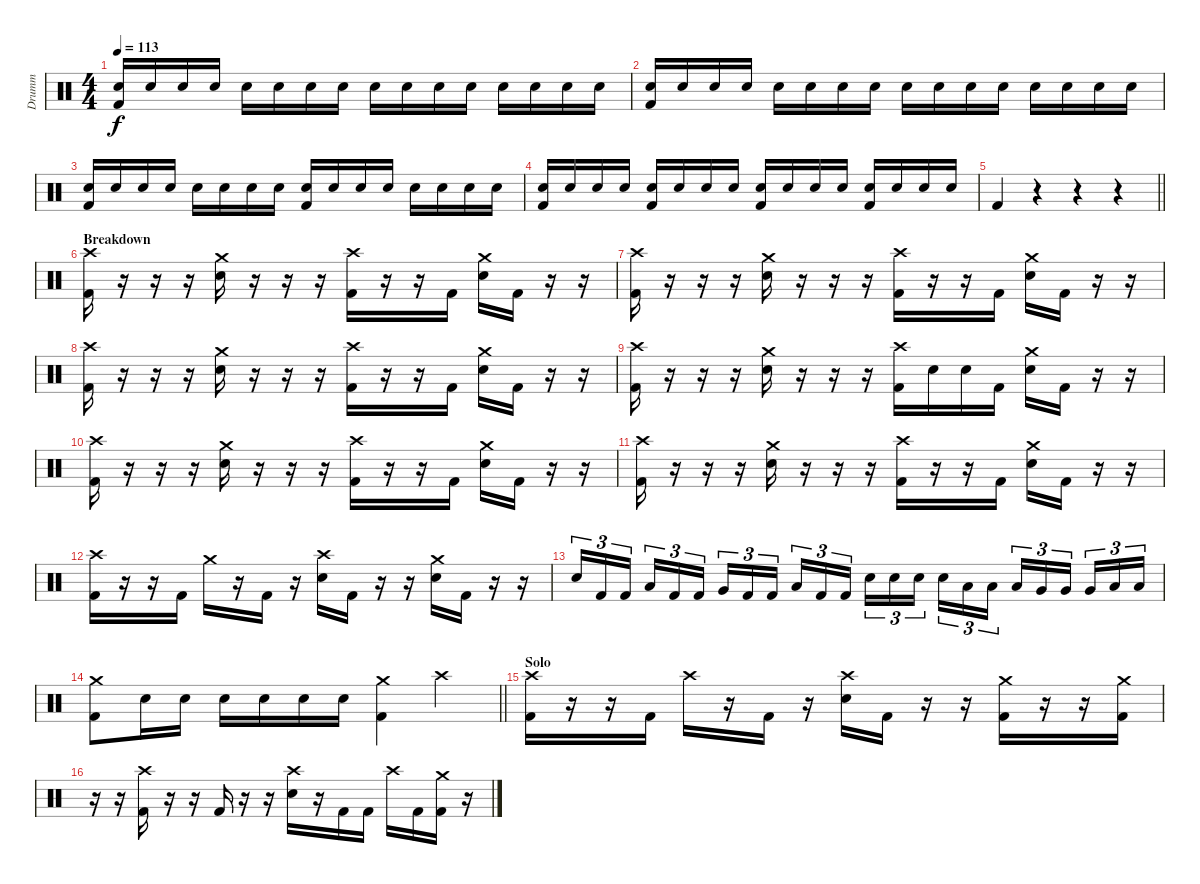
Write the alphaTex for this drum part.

\track ("Drumm" "Drumm") {instrument percussion}
\staff {score}
\articulation defaults
\ts (4 4)
\tempo 113
\clef neutral
\ks c
("Electric Snare (hit)" "Kick (hit) 2").16{dy f volume 11} "Electric Snare (hit)".16 "Electric Snare (hit)".16 "Electric Snare (hit)".16 "Electric Snare (hit)".16 "Electric Snare (hit)".16 "Electric Snare (hit)".16 "Electric Snare (hit)".16 "Electric Snare (hit)".16 "Electric Snare (hit)".16 "Electric Snare (hit)".16 "Electric Snare (hit)".16 "Electric Snare (hit)".16 "Electric Snare (hit)".16 "Electric Snare (hit)".16 "Electric Snare (hit)".16 |
("Electric Snare (hit)" "Kick (hit) 2").16 "Electric Snare (hit)".16 "Electric Snare (hit)".16 "Electric Snare (hit)".16 "Electric Snare (hit)".16 "Electric Snare (hit)".16 "Electric Snare (hit)".16 "Electric Snare (hit)".16 "Electric Snare (hit)".16 "Electric Snare (hit)".16 "Electric Snare (hit)".16 "Electric Snare (hit)".16 "Electric Snare (hit)".16 "Electric Snare (hit)".16 "Electric Snare (hit)".16 "Electric Snare (hit)".16 |
("Electric Snare (hit)" "Kick (hit) 2").16 "Electric Snare (hit)".16 "Electric Snare (hit)".16 "Electric Snare (hit)".16 "Electric Snare (hit)".16 "Electric Snare (hit)".16 "Electric Snare (hit)".16 "Electric Snare (hit)".16 ("Electric Snare (hit)" "Kick (hit) 2").16 "Electric Snare (hit)".16 "Electric Snare (hit)".16 "Electric Snare (hit)".16 "Electric Snare (hit)".16 "Electric Snare (hit)".16 "Electric Snare (hit)".16 "Electric Snare (hit)".16 |
("Electric Snare (hit)" "Kick (hit) 2").16{volume 16} "Electric Snare (hit)".16 "Electric Snare (hit)".16 "Electric Snare (hit)".16 ("Electric Snare (hit)" "Kick (hit) 2").16 "Electric Snare (hit)".16 "Electric Snare (hit)".16 "Electric Snare (hit)".16 ("Electric Snare (hit)" "Kick (hit) 2").16 "Electric Snare (hit)".16 "Electric Snare (hit)".16 "Electric Snare (hit)".16 ("Electric Snare (hit)" "Kick (hit) 2").16 "Electric Snare (hit)".16 "Electric Snare (hit)".16 "Electric Snare (hit)".16 |
\barLineRight lightlight "Kick (hit) 2".4
r.4 r.4 r.4 |
\section ("" "Breakdown")
("Crash high (hit)" "Kick (hit) 2").16 r.16 r.16 r.16 ("Crash medium (hit)" "Electric Snare (hit)").16 r.16 r.16 r.16 ("Crash high (hit)" "Kick (hit) 2").16 r.16 r.16 "Kick (hit) 2".16 ("Crash medium (hit)" "Electric Snare (hit)").16 "Kick (hit) 2".16 r.16 r.16 |
("Crash high (hit)" "Kick (hit) 2").16 r.16 r.16 r.16 ("Crash medium (hit)" "Electric Snare (hit)").16 r.16 r.16 r.16 ("Crash high (hit)" "Kick (hit) 2").16 r.16 r.16 "Kick (hit) 2".16 ("Crash medium (hit)" "Electric Snare (hit)").16 "Kick (hit) 2".16 r.16 r.16 |
("Crash high (hit)" "Kick (hit) 2").16 r.16 r.16 r.16 ("Crash medium (hit)" "Electric Snare (hit)").16 r.16 r.16 r.16 ("Crash high (hit)" "Kick (hit) 2").16 r.16 r.16 "Kick (hit) 2".16 ("Crash medium (hit)" "Electric Snare (hit)").16 "Kick (hit) 2".16 r.16 r.16 |
("Crash high (hit)" "Kick (hit) 2").16 r.16 r.16 r.16 ("Crash medium (hit)" "Electric Snare (hit)").16 r.16 r.16 r.16 ("Crash high (hit)" "Kick (hit) 2").16 "Electric Snare (hit)".16 "Electric Snare (hit)".16 "Kick (hit) 2".16 ("Crash medium (hit)" "Electric Snare (hit)").16 "Kick (hit) 2".16 r.16 r.16 |
("Crash high (hit)" "Kick (hit) 2").16 r.16 r.16 r.16 ("Crash medium (hit)" "Electric Snare (hit)").16 r.16 r.16 r.16 ("Crash high (hit)" "Kick (hit) 2").16 r.16 r.16 "Kick (hit) 2".16 ("Crash medium (hit)" "Electric Snare (hit)").16 "Kick (hit) 2".16 r.16 r.16 |
("Crash high (hit)" "Kick (hit) 2").16 r.16 r.16 r.16 ("Crash medium (hit)" "Electric Snare (hit)").16 r.16 r.16 r.16 ("Crash high (hit)" "Kick (hit) 2").16 r.16 r.16 "Kick (hit) 2".16 ("Crash medium (hit)" "Electric Snare (hit)").16 "Kick (hit) 2".16 r.16 r.16 |
("Crash high (hit)" "Kick (hit) 2").16 r.16 r.16 "Kick (hit) 2".16 "Crash medium (hit)".16 r.16 "Kick (hit) 2".16 r.16 ("Crash high (hit)" "Electric Snare (hit)").16 "Kick (hit) 2".16 r.16 r.16 ("Crash medium (hit)" "Electric Snare (hit)").16 "Kick (hit) 2".16 r.16 r.16 |
"Electric Snare (hit)".16{tu (3 2)} "Kick (hit) 2".16{tu (3 2)} "Kick (hit) 2".16{tu (3 2) beam splitsecondary} "Low Tom (hit)".16{tu (3 2)} "Kick (hit) 2".16{tu (3 2)} "Kick (hit) 2".16{tu (3 2)} "Very Low Tom (hit)".16{tu (3 2)} "Kick (hit) 2".16{tu (3 2)} "Kick (hit) 2".16{tu (3 2) beam splitsecondary} "Low Floor Tom (hit)".16{tu (3 2)} "Kick (hit) 2".16{tu (3 2)} "Kick (hit) 2".16{tu (3 2)} "Electric Snare (hit)".16{tu (3 2)} "Electric Snare (hit)".16{tu (3 2)} "Electric Snare (hit)".16{tu (3 2) beam splitsecondary} "Electric Snare (hit)".16{tu (3 2)} "Low Tom (hit)".16{tu (3 2)} "Low Tom (hit)".16{tu (3 2)} "Low Tom (hit)".16{tu (3 2)} "Very Low Tom (hit)".16{tu (3 2)} "Very Low Tom (hit)".16{tu (3 2) beam splitsecondary} "Very Low Tom (hit)".16{tu (3 2)} "Low Floor Tom (hit)".16{tu (3 2)} "Low Floor Tom (hit)".16{tu (3 2)} |
\barLineRight lightlight
("Crash medium (hit)" "Kick (hit) 2").8 "Electric Snare (hit)".16 "Electric Snare (hit)".16 "Electric Snare (hit)".16 "Electric Snare (hit)".16 "Electric Snare (hit)".16 "Electric Snare (hit)".16 ("Crash medium (hit)" "Kick (hit) 2").4 "Crash high (hit)".4 |
\section ("" "Solo")
("Crash high (hit)" "Kick (hit) 2").16 r.16 r.16 "Kick (hit) 2".16 "Crash high (hit)".16 r.16 "Kick (hit) 2".16 r.16 ("Crash high (hit)" "Electric Snare (hit)").16 "Kick (hit) 2".16 r.16 r.16 ("Crash medium (hit)" "Kick (hit) 2").16 r.16 r.16 ("Crash medium (hit)" "Kick (hit) 2").16 |
r.16 r.16 ("Crash high (hit)" "Kick (hit) 2").16 r.16 r.16 "Kick (hit) 2".16 r.16 r.16 ("Crash high (hit)" "Electric Snare (hit)").16 r.16 "Kick (hit) 2".16 "Kick (hit) 2".16 "Crash high (hit)".16 "Kick (hit) 2".16 ("Crash medium (hit)" "Kick (hit) 2").16 r.16
